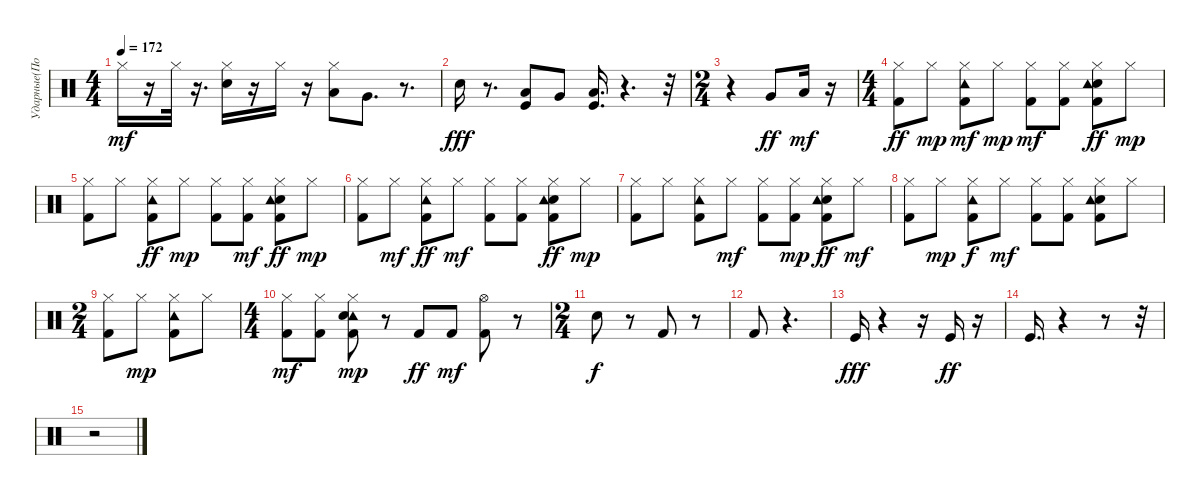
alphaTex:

\track ("Ударные(Потапкин)" "Ударные(По") {instrument percussion}
\staff {score}
\articulation defaults
\ts (4 4)
\tempo 172
\clef neutral
\ks c "Hi-Hat (closed)".16{dy mf}
r.16 "Hi-Hat (closed)".32 r.16{d} ("Snare (hit) 2" "Hi-Hat (closed)").16 r.16 "Hi-Hat (closed)".16 r.16 ("Low Tom (hit)" "Hi-Hat (closed)").8 "Very Low Tom (hit)".8{d} r.8{d} |
"Snare (hit) 2".16{dy fff} r.8{d} ("Low Tom (hit)" "Kick (hit)").8 "Very Low Tom (hit)".8 ("Low Floor Tom (hit)" "Kick (hit)").16{d} r.4{d} r.32 |
\ts (2 4)
r.4 "Very Low Tom (hit)".8{dy ff} "Low Floor Tom (hit)".16{dy mf} r.16 |
\ts (4 4)
("Hi-Hat (closed)" "Kick (hit) 2").8{dy ff} "Hi-Hat (closed)".8{dy mp} ("Hi-Hat (closed)" "Kick (hit) 2" "Tambourine (hit)").8{dy mf} "Hi-Hat (closed)".8{dy mp} ("Hi-Hat (closed)" "Kick (hit) 2").8{dy mf} ("Hi-Hat (closed)" "Kick (hit) 2").8 ("Snare (hit) 2" "Hi-Hat (closed)" "Kick (hit) 2" "Tambourine (hit)").8{dy ff} "Hi-Hat (closed)".8{dy mp} |
("Hi-Hat (closed)" "Kick (hit) 2").8 "Hi-Hat (closed)".8 ("Hi-Hat (closed)" "Tambourine (hit)" "Kick (hit) 2").8{dy ff} "Hi-Hat (closed)".8{dy mp} ("Hi-Hat (closed)" "Kick (hit) 2").8 ("Hi-Hat (closed)" "Kick (hit) 2").8{dy mf} ("Snare (hit) 2" "Hi-Hat (closed)" "Kick (hit) 2" "Tambourine (hit)").8{dy ff} "Hi-Hat (closed)".8{dy mp} |
("Hi-Hat (closed)" "Kick (hit) 2").8 "Hi-Hat (closed)".8{dy mf} ("Hi-Hat (closed)" "Tambourine (hit)" "Kick (hit) 2").8{dy ff} "Hi-Hat (closed)".8{dy mf} ("Hi-Hat (closed)" "Kick (hit) 2").8 ("Hi-Hat (closed)" "Kick (hit) 2").8 ("Snare (hit) 2" "Hi-Hat (closed)" "Tambourine (hit)" "Kick (hit) 2").8{dy ff} "Hi-Hat (closed)".8{dy mp} |
("Hi-Hat (closed)" "Kick (hit) 2").8 "Hi-Hat (closed)".8 ("Tambourine (hit)" "Kick (hit) 2" "Hi-Hat (closed)").8 "Hi-Hat (closed)".8{dy mf} ("Kick (hit) 2" "Hi-Hat (closed)").8 ("Kick (hit) 2" "Hi-Hat (closed)").8{dy mp} ("Snare (hit) 2" "Hi-Hat (closed)" "Tambourine (hit)" "Kick (hit) 2").8{dy ff} "Hi-Hat (closed)".8{dy mf} |
("Kick (hit) 2" "Hi-Hat (closed)").8 "Hi-Hat (closed)".8{dy mp} ("Tambourine (hit)" "Kick (hit) 2" "Hi-Hat (closed)").8{dy f} "Hi-Hat (closed)".8{dy mf} ("Kick (hit) 2" "Hi-Hat (closed)").8 ("Kick (hit) 2" "Hi-Hat (closed)").8 ("Snare (hit) 2" "Kick (hit) 2" "Tambourine (hit)" "Hi-Hat (closed)").8 "Hi-Hat (closed)".8 |
\ts (2 4)
("Kick (hit) 2" "Hi-Hat (closed)").8 "Hi-Hat (closed)".8{dy mp} ("Tambourine (hit)" "Kick (hit) 2" "Hi-Hat (closed)").8 "Hi-Hat (closed)".8 |
\ts (4 4)
("Kick (hit) 2" "Hi-Hat (closed)").8{dy mf} ("Kick (hit) 2" "Hi-Hat (closed)").8 ("Tambourine (hit)" "Kick (hit) 2" "Hi-Hat (closed)" "Snare (hit) 2").8{dy mp} r.8 "Kick (hit) 2".8{dy ff} "Kick (hit) 2".8{dy mf} ("Kick (hit) 2" "Hi-Hat (open)").8 r.8 |
\ts (2 4)
"Snare (hit) 2".8{dy f} r.8 "Kick (hit) 2".8 r.8 |
"Kick (hit) 2".8 r.4{d} |
"Kick (hit)".16{dy fff} r.4 r.16 "Kick (hit)".16{dy ff} r.16 |
"Kick (hit)".16{d} r.4 r.8 r.32 |
r.2
